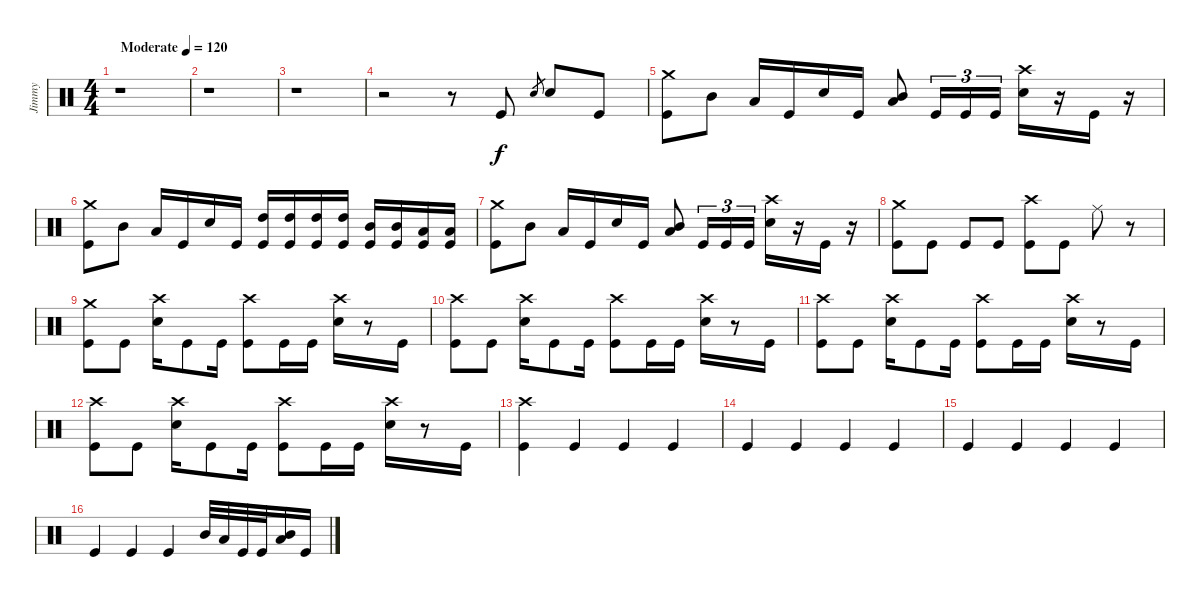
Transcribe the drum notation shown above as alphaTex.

\track ("Jimmy" "Jimmy") {instrument percussion}
\staff {score}
\articulation defaults
\ts (4 4)
\tempo (120 "Moderate")
\clef neutral
\ks c
r.1{dy f} |
r.1 |
r.1 |
r.2 r.8 "Kick (hit)".8 "Snare (hit) 2".8{gr} "Snare (hit) 2".8 "Kick (hit)".8 |
("Crash medium (hit)" "Kick (hit)").8 "Mid Tom (hit)".8 "Low Tom (hit)".16 "Kick (hit)".16 "Snare (hit) 2".16 "Kick (hit)".16 ("Mid Tom (hit)" "Low Tom (hit)").8 "Kick (hit)".16{tu (3 2)} "Kick (hit)".16{tu (3 2)} "Kick (hit)".16{tu (3 2)} ("Snare (hit) 2" "Crash high (hit)").16 r.16 "Kick (hit)".16 r.16 |
("Crash medium (hit)" "Kick (hit)").8 "Mid Tom (hit)".8 "Low Tom (hit)".16 "Kick (hit)".16 "Snare (hit) 2".16 "Kick (hit)".16 ("Kick (hit)" "High Tom (hit)").16 ("Kick (hit)" "High Tom (hit)").16 ("Kick (hit)" "High Tom (hit)").16 ("Kick (hit)" "High Tom (hit)").16 ("Kick (hit)" "Mid Tom (hit)").16 ("Kick (hit)" "Mid Tom (hit)").16 ("Kick (hit)" "Low Tom (hit)").16 ("Kick (hit)" "Low Tom (hit)").16 |
("Crash medium (hit)" "Kick (hit)").8 "Mid Tom (hit)".8 "Low Tom (hit)".16 "Kick (hit)".16 "Snare (hit) 2".16 "Kick (hit)".16 ("Mid Tom (hit)" "Low Tom (hit)").8 "Kick (hit)".16{tu (3 2)} "Kick (hit)".16{tu (3 2)} "Kick (hit)".16{tu (3 2)} ("Snare (hit) 2" "Crash high (hit)").16 r.16 "Kick (hit)".16 r.16 |
("Kick (hit)" "Crash medium (hit)").8 "Kick (hit)".8 "Kick (hit)".8 "Kick (hit)".8 ("Kick (hit)" "Crash high (hit)").8 "Kick (hit)".8 "Ride (middle)".8 r.8 |
("Crash medium (hit)" "Kick (hit)").8 "Kick (hit)".8 ("Crash high (hit)" "Snare (hit) 2").16 "Kick (hit)".8 "Kick (hit)".16 ("Crash high (hit)" "Kick (hit)").8 "Kick (hit)".16 "Kick (hit)".16 ("Snare (hit) 2" "Crash high (hit)").16 r.8 "Kick (hit)".16 |
("Kick (hit)" "Crash high (hit)").8 "Kick (hit)".8 ("Crash high (hit)" "Snare (hit) 2").16 "Kick (hit)".8 "Kick (hit)".16 ("Crash high (hit)" "Kick (hit)").8 "Kick (hit)".16 "Kick (hit)".16 ("Snare (hit) 2" "Crash high (hit)").16 r.8 "Kick (hit)".16 |
("Crash high (hit)" "Kick (hit)").8 "Kick (hit)".8 ("Crash high (hit)" "Snare (hit) 2").16 "Kick (hit)".8 "Kick (hit)".16 ("Crash high (hit)" "Kick (hit)").8 "Kick (hit)".16 "Kick (hit)".16 ("Snare (hit) 2" "Crash high (hit)").16 r.8 "Kick (hit)".16 |
("Crash high (hit)" "Kick (hit)").8 "Kick (hit)".8 ("Crash high (hit)" "Snare (hit) 2").16 "Kick (hit)".8 "Kick (hit)".16 ("Crash high (hit)" "Kick (hit)").8 "Kick (hit)".16 "Kick (hit)".16 ("Snare (hit) 2" "Crash high (hit)").16 r.8 "Kick (hit)".16 |
("Crash high (hit)" "Kick (hit)").4 "Kick (hit)".4 "Kick (hit)".4 "Kick (hit)".4 |
"Kick (hit)".4 "Kick (hit)".4 "Kick (hit)".4 "Kick (hit)".4 |
"Kick (hit)".4 "Kick (hit)".4 "Kick (hit)".4 "Kick (hit)".4 |
"Kick (hit)".4 "Kick (hit)".4 "Kick (hit)".4 "Mid Tom (hit)".32 "Low Tom (hit)".32 "Kick (hit)".32 "Kick (hit)".32 ("Mid Tom (hit)" "Low Tom (hit)").16 "Kick (hit)".16
